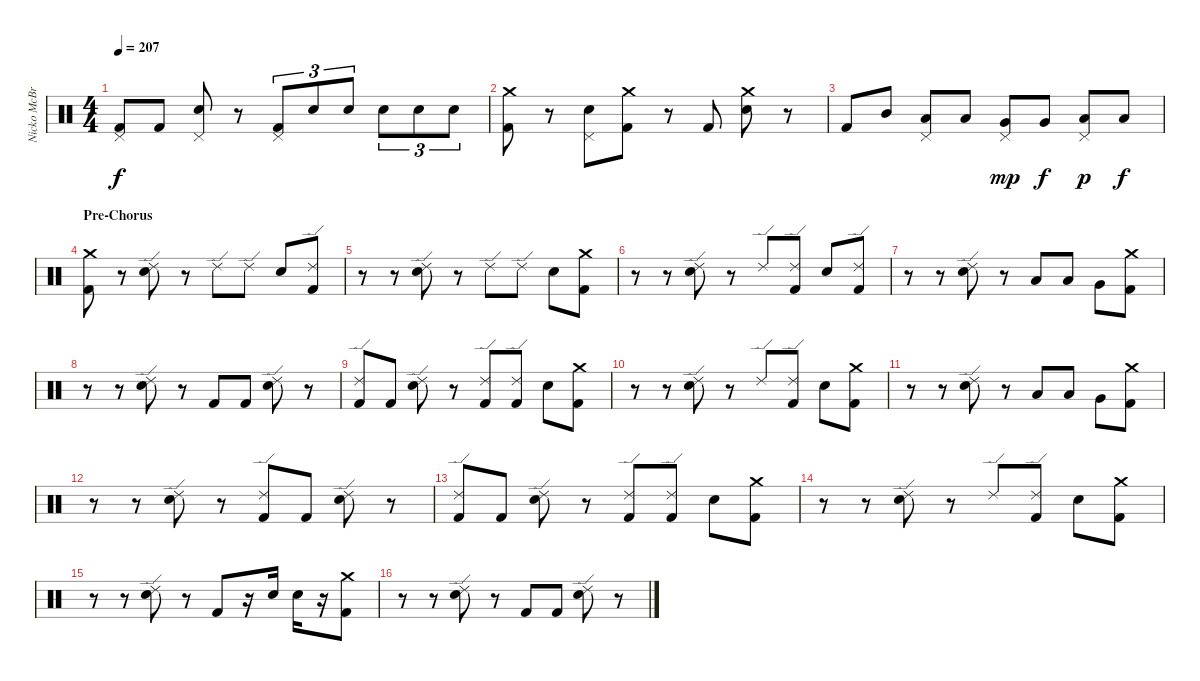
\track ("Nicko McBrain" "Nicko McBr") {instrument percussion}
\staff {score}
\articulation defaults
\ts (4 4)
\tempo 207
\clef neutral
\ks c
("Pedal Hi-Hat (hit)" "Kick (hit) 2").8{dy f} "Kick (hit) 2".8 ("Pedal Hi-Hat (hit)" "Snare (hit) 2").8 r.8 ("Pedal Hi-Hat (hit)" "Kick (hit) 2").8{tu (3 2)} "Snare (hit) 2".8{tu (3 2)} "Snare (hit) 2".8{tu (3 2)} "Snare (hit) 2".8{tu (3 2)} "Snare (hit) 2".8{tu (3 2)} "Snare (hit) 2".8{tu (3 2)} |
("Crash medium (hit)" "Kick (hit) 2").8 r.8 ("Pedal Hi-Hat (hit)" "Snare (hit) 2").8 ("Crash medium (hit)" "Kick (hit) 2").8 r.8 "Kick (hit) 2".8 ("Crash medium (hit)" "Snare (hit) 2").8 r.8 |
"Kick (hit) 2".8 "Mid Tom (hit)".8 ("Pedal Hi-Hat (hit)" "Low Tom (hit)").8 "Low Tom (hit)".8 ("Pedal Hi-Hat (hit)" "Very Low Tom (hit)").8{dy mp} "Very Low Tom (hit)".8{dy f} ("Pedal Hi-Hat (hit)" "Low Floor Tom (hit)").8{dy p} "Low Floor Tom (hit)".8{dy f} |
\section ("" "Pre-Chorus")
("Crash medium (hit)" "Kick (hit) 2").8 r.8 ("Ride (edge) 2" "Snare (hit) 2").8 r.8 "Ride (edge) 2".8 "Ride (edge) 2".8 "Snare (hit) 2".8 ("Ride (edge) 2" "Kick (hit) 2").8 |
r.8 r.8 ("Ride (edge) 2" "Snare (hit) 2").8 r.8 "Ride (edge) 2".8 "Ride (edge) 2".8 "Snare (hit) 2".8 ("Crash medium (hit)" "Kick (hit) 2").8 |
r.8 r.8 ("Ride (edge) 2" "Snare (hit) 2").8 r.8 "Ride (edge) 2".8 ("Ride (edge) 2" "Kick (hit) 2").8 "Snare (hit) 2".8 ("Ride (edge) 2" "Kick (hit) 2").8 |
r.8 r.8 ("Ride (edge) 2" "Snare (hit) 2").8 r.8 "Low Tom (hit)".8 "Low Tom (hit)".8 "Very Low Tom (hit)".8 ("Crash medium (hit)" "Kick (hit) 2").8 |
r.8 r.8 ("Ride (edge) 2" "Snare (hit) 2").8 r.8 "Kick (hit) 2".8 "Kick (hit) 2".8 ("Ride (edge) 2" "Snare (hit) 2").8 r.8 |
("Ride (edge) 2" "Kick (hit) 2").8 "Kick (hit) 2".8 ("Ride (edge) 2" "Snare (hit) 2").8 r.8 ("Ride (edge) 2" "Kick (hit) 2").8 ("Ride (edge) 2" "Kick (hit) 2").8 "Snare (hit) 2".8 ("Crash medium (hit)" "Kick (hit) 2").8 |
r.8 r.8 ("Ride (edge) 2" "Snare (hit) 2").8 r.8 "Ride (edge) 2".8 ("Ride (edge) 2" "Kick (hit) 2").8 "Snare (hit) 2".8 ("Crash medium (hit)" "Kick (hit) 2").8 |
r.8 r.8 ("Ride (edge) 2" "Snare (hit) 2").8 r.8 "Low Tom (hit)".8 "Low Tom (hit)".8 "Very Low Tom (hit)".8 ("Crash medium (hit)" "Kick (hit) 2").8 |
r.8 r.8 ("Ride (edge) 2" "Snare (hit) 2").8 r.8 ("Ride (edge) 2" "Kick (hit) 2").8 "Kick (hit) 2".8 ("Ride (edge) 2" "Snare (hit) 2").8 r.8 |
("Ride (edge) 2" "Kick (hit) 2").8 "Kick (hit) 2".8 ("Ride (edge) 2" "Snare (hit) 2").8 r.8 ("Ride (edge) 2" "Kick (hit) 2").8 ("Ride (edge) 2" "Kick (hit) 2").8 "Snare (hit) 2".8 ("Crash medium (hit)" "Kick (hit) 2").8 |
r.8 r.8 ("Ride (edge) 2" "Snare (hit) 2").8 r.8 "Ride (edge) 2".8 ("Ride (edge) 2" "Kick (hit) 2").8 "Snare (hit) 2".8 ("Crash medium (hit)" "Kick (hit) 2").8 |
r.8 r.8 ("Ride (edge) 2" "Snare (hit) 2").8 r.8 "Kick (hit) 2".8 r.16 "Snare (hit) 2".16 "Snare (hit) 2".16 r.16 ("Crash medium (hit)" "Kick (hit) 2").8 |
r.8 r.8 ("Ride (edge) 2" "Snare (hit) 2").8 r.8 "Kick (hit) 2".8 "Kick (hit) 2".8 ("Ride (edge) 2" "Snare (hit) 2").8 r.8
